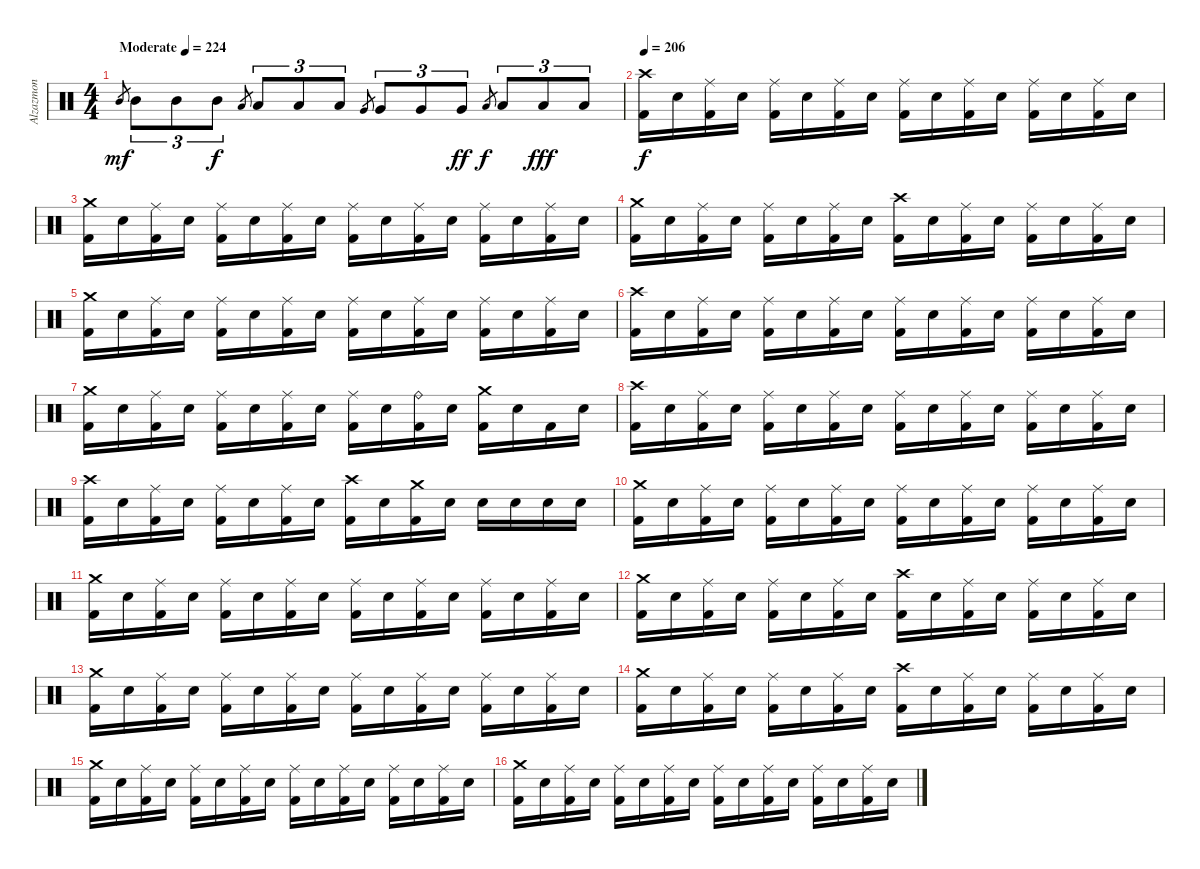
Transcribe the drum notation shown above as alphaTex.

\track ("Alzazmon" "Alzazmon") {instrument percussion}
\staff {score}
\articulation defaults
\ts (4 4)
\tempo (224 "Moderate")
\clef neutral
\ks c "Mid Tom (hit)".8{gr dy mf} "Mid Tom (hit)".8{tu (3 2)} "Mid Tom (hit)".8{tu (3 2)} "Mid Tom (hit)".8{tu (3 2) dy f} "Low Tom (hit)".8{gr} "Low Tom (hit)".8{tu (3 2)} "Low Tom (hit)".8{tu (3 2)} "Low Tom (hit)".8{tu (3 2)} "Very Low Tom (hit)".8{gr} "Very Low Tom (hit)".8{tu (3 2)} "Very Low Tom (hit)".8{tu (3 2)} "Very Low Tom (hit)".8{tu (3 2) dy ff} "Low Floor Tom (hit)".8{gr dy f} "Low Floor Tom (hit)".8{tu (3 2)} "Low Floor Tom (hit)".8{tu (3 2) dy fff} "Low Floor Tom (hit)".8{tu (3 2)}
|
\tempo 206
("Crash high (hit)" "Kick (hit) 2").16{dy f} "Snare (hit) 2".16 ("Ride (middle)" "Kick (hit) 2").16 "Snare (hit) 2".16 ("Ride (middle)" "Kick (hit) 2").16 "Snare (hit) 2".16 ("Ride (middle)" "Kick (hit) 2").16 "Snare (hit) 2".16 ("Ride (middle)" "Kick (hit) 2").16 "Snare (hit) 2".16 ("Ride (middle)" "Kick (hit) 2").16 "Snare (hit) 2".16 ("Ride (middle)" "Kick (hit) 2").16 "Snare (hit) 2".16 ("Ride (middle)" "Kick (hit) 2").16 "Snare (hit) 2".16 |
("Crash medium (hit)" "Kick (hit) 2").16 "Snare (hit) 2".16 ("Ride (middle)" "Kick (hit) 2").16 "Snare (hit) 2".16 ("Ride (middle)" "Kick (hit) 2").16 "Snare (hit) 2".16 ("Ride (middle)" "Kick (hit) 2").16 "Snare (hit) 2".16 ("Ride (middle)" "Kick (hit) 2").16 "Snare (hit) 2".16 ("Ride (middle)" "Kick (hit) 2").16 "Snare (hit) 2".16 ("Ride (middle)" "Kick (hit) 2").16 "Snare (hit) 2".16 ("Ride (middle)" "Kick (hit) 2").16 "Snare (hit) 2".16 |
("Crash medium (hit)" "Kick (hit) 2").16 "Snare (hit) 2".16 ("Ride (middle)" "Kick (hit) 2").16 "Snare (hit) 2".16 ("Ride (middle)" "Kick (hit) 2").16 "Snare (hit) 2".16 ("Ride (middle)" "Kick (hit) 2").16 "Snare (hit) 2".16 ("Crash high (hit)" "Kick (hit) 2").16 "Snare (hit) 2".16 ("Ride (middle)" "Kick (hit) 2").16 "Snare (hit) 2".16 ("Ride (middle)" "Kick (hit) 2").16 "Snare (hit) 2".16 ("Ride (middle)" "Kick (hit) 2").16 "Snare (hit) 2".16 |
("Crash medium (hit)" "Kick (hit) 2").16 "Snare (hit) 2".16 ("Ride (middle)" "Kick (hit) 2").16 "Snare (hit) 2".16 ("Ride (middle)" "Kick (hit) 2").16 "Snare (hit) 2".16 ("Ride (middle)" "Kick (hit) 2").16 "Snare (hit) 2".16 ("Ride (middle)" "Kick (hit) 2").16 "Snare (hit) 2".16 ("Ride (middle)" "Kick (hit) 2").16 "Snare (hit) 2".16 ("Ride (middle)" "Kick (hit) 2").16 "Snare (hit) 2".16 ("Ride (middle)" "Kick (hit) 2").16 "Snare (hit) 2".16 |
("Crash high (hit)" "Kick (hit) 2").16 "Snare (hit) 2".16 ("Ride (middle)" "Kick (hit) 2").16 "Snare (hit) 2".16 ("Ride (middle)" "Kick (hit) 2").16 "Snare (hit) 2".16 ("Ride (middle)" "Kick (hit) 2").16 "Snare (hit) 2".16 ("Ride (middle)" "Kick (hit) 2").16 "Snare (hit) 2".16 ("Ride (middle)" "Kick (hit) 2").16 "Snare (hit) 2".16 ("Ride (middle)" "Kick (hit) 2").16 "Snare (hit) 2".16 ("Ride (middle)" "Kick (hit) 2").16 "Snare (hit) 2".16 |
("Crash medium (hit)" "Kick (hit) 2").16 "Snare (hit) 2".16 ("Ride (middle)" "Kick (hit) 2").16 "Snare (hit) 2".16 ("Ride (middle)" "Kick (hit) 2").16 "Snare (hit) 2".16 ("Ride (middle)" "Kick (hit) 2").16 "Snare (hit) 2".16 ("Ride (middle)" "Kick (hit) 2").16 "Snare (hit) 2".16 ("Ride (bell)" "Kick (hit) 2").16 "Snare (hit) 2".16 ("Crash medium (hit)" "Kick (hit) 2").16 "Snare (hit) 2".16 "Kick (hit) 2".16 "Snare (hit) 2".16 |
("Crash high (hit)" "Kick (hit) 2").16 "Snare (hit) 2".16 ("Ride (middle)" "Kick (hit) 2").16 "Snare (hit) 2".16 ("Ride (middle)" "Kick (hit) 2").16 "Snare (hit) 2".16 ("Ride (middle)" "Kick (hit) 2").16 "Snare (hit) 2".16 ("Ride (middle)" "Kick (hit) 2").16 "Snare (hit) 2".16 ("Ride (middle)" "Kick (hit) 2").16 "Snare (hit) 2".16 ("Ride (middle)" "Kick (hit) 2").16 "Snare (hit) 2".16 ("Ride (middle)" "Kick (hit) 2").16 "Snare (hit) 2".16 |
("Crash high (hit)" "Kick (hit) 2").16 "Snare (hit) 2".16 ("Ride (middle)" "Kick (hit) 2").16 "Snare (hit) 2".16 ("Ride (middle)" "Kick (hit) 2").16 "Snare (hit) 2".16 ("Ride (middle)" "Kick (hit) 2").16 "Snare (hit) 2".16 ("Crash high (hit)" "Kick (hit) 2").16 "Snare (hit) 2".16 ("Crash medium (hit)" "Kick (hit) 2").16 "Snare (hit) 2".16 "Snare (hit) 2".16 "Snare (hit) 2".16 "Snare (hit) 2".16 "Snare (hit) 2".16 |
("Crash medium (hit)" "Kick (hit) 2").16 "Snare (hit) 2".16 ("Ride (middle)" "Kick (hit) 2").16 "Snare (hit) 2".16 ("Ride (middle)" "Kick (hit) 2").16 "Snare (hit) 2".16 ("Ride (middle)" "Kick (hit) 2").16 "Snare (hit) 2".16 ("Ride (middle)" "Kick (hit) 2").16 "Snare (hit) 2".16 ("Ride (middle)" "Kick (hit) 2").16 "Snare (hit) 2".16 ("Ride (middle)" "Kick (hit) 2").16 "Snare (hit) 2".16 ("Ride (middle)" "Kick (hit) 2").16 "Snare (hit) 2".16 |
("Crash medium (hit)" "Kick (hit) 2").16 "Snare (hit) 2".16 ("Ride (middle)" "Kick (hit) 2").16 "Snare (hit) 2".16 ("Ride (middle)" "Kick (hit) 2").16 "Snare (hit) 2".16 ("Ride (middle)" "Kick (hit) 2").16 "Snare (hit) 2".16 ("Ride (middle)" "Kick (hit) 2").16 "Snare (hit) 2".16 ("Ride (middle)" "Kick (hit) 2").16 "Snare (hit) 2".16 ("Ride (middle)" "Kick (hit) 2").16 "Snare (hit) 2".16 ("Ride (middle)" "Kick (hit) 2").16 "Snare (hit) 2".16 |
("Crash medium (hit)" "Kick (hit) 2").16 "Snare (hit) 2".16 ("Ride (middle)" "Kick (hit) 2").16 "Snare (hit) 2".16 ("Ride (middle)" "Kick (hit) 2").16 "Snare (hit) 2".16 ("Ride (middle)" "Kick (hit) 2").16 "Snare (hit) 2".16 ("Crash high (hit)" "Kick (hit) 2").16 "Snare (hit) 2".16 ("Ride (middle)" "Kick (hit) 2").16 "Snare (hit) 2".16 ("Ride (middle)" "Kick (hit) 2").16 "Snare (hit) 2".16 ("Ride (middle)" "Kick (hit) 2").16 "Snare (hit) 2".16 |
("Crash medium (hit)" "Kick (hit) 2").16 "Snare (hit) 2".16 ("Ride (middle)" "Kick (hit) 2").16 "Snare (hit) 2".16 ("Ride (middle)" "Kick (hit) 2").16 "Snare (hit) 2".16 ("Ride (middle)" "Kick (hit) 2").16 "Snare (hit) 2".16 ("Ride (middle)" "Kick (hit) 2").16 "Snare (hit) 2".16 ("Ride (middle)" "Kick (hit) 2").16 "Snare (hit) 2".16 ("Ride (middle)" "Kick (hit) 2").16 "Snare (hit) 2".16 ("Ride (middle)" "Kick (hit) 2").16 "Snare (hit) 2".16 |
("Crash medium (hit)" "Kick (hit) 2").16 "Snare (hit) 2".16 ("Ride (middle)" "Kick (hit) 2").16 "Snare (hit) 2".16 ("Ride (middle)" "Kick (hit) 2").16 "Snare (hit) 2".16 ("Ride (middle)" "Kick (hit) 2").16 "Snare (hit) 2".16 ("Crash high (hit)" "Kick (hit) 2").16 "Snare (hit) 2".16 ("Ride (middle)" "Kick (hit) 2").16 "Snare (hit) 2".16 ("Ride (middle)" "Kick (hit) 2").16 "Snare (hit) 2".16 ("Ride (middle)" "Kick (hit) 2").16 "Snare (hit) 2".16 |
("Crash medium (hit)" "Kick (hit) 2").16 "Snare (hit) 2".16 ("Ride (middle)" "Kick (hit) 2").16 "Snare (hit) 2".16 ("Ride (middle)" "Kick (hit) 2").16 "Snare (hit) 2".16 ("Ride (middle)" "Kick (hit) 2").16 "Snare (hit) 2".16 ("Ride (middle)" "Kick (hit) 2").16 "Snare (hit) 2".16 ("Ride (middle)" "Kick (hit) 2").16 "Snare (hit) 2".16 ("Ride (middle)" "Kick (hit) 2").16 "Snare (hit) 2".16 ("Ride (middle)" "Kick (hit) 2").16 "Snare (hit) 2".16 |
("Crash medium (hit)" "Kick (hit) 2").16 "Snare (hit) 2".16 ("Ride (middle)" "Kick (hit) 2").16 "Snare (hit) 2".16 ("Ride (middle)" "Kick (hit) 2").16 "Snare (hit) 2".16 ("Ride (middle)" "Kick (hit) 2").16 "Snare (hit) 2".16 ("Ride (middle)" "Kick (hit) 2").16 "Snare (hit) 2".16 ("Ride (middle)" "Kick (hit) 2").16 "Snare (hit) 2".16 ("Ride (middle)" "Kick (hit) 2").16 "Snare (hit) 2".16 ("Ride (middle)" "Kick (hit) 2").16 "Snare (hit) 2".16
